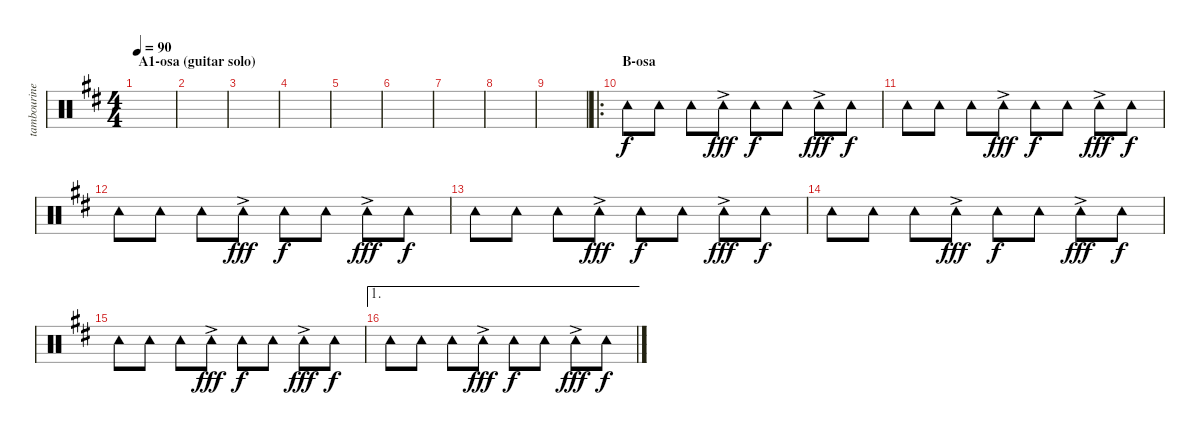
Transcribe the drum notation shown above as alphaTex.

\track ("tambourine" "tambourine") {instrument percussion}
\staff {score}
\articulation defaults
\ts (4 4)
\section ("" "A1-osa (guitar solo)")
\tempo 90
\clef neutral
\ks d
|
|
|
|
|
|
|
|
|
\ro
\section ("" "B-osa")
"Tambourine (hit)".8 "Tambourine (hit)".8 "Tambourine (hit)".8 "Tambourine (hit)"{ac}.8{dy fff} "Tambourine (hit)".8{dy f} "Tambourine (hit)".8 "Tambourine (hit)"{ac}.8{dy fff} "Tambourine (hit)".8{dy f} |
"Tambourine (hit)".8 "Tambourine (hit)".8 "Tambourine (hit)".8 "Tambourine (hit)"{ac}.8{dy fff} "Tambourine (hit)".8{dy f} "Tambourine (hit)".8 "Tambourine (hit)"{ac}.8{dy fff} "Tambourine (hit)".8{dy f} |
"Tambourine (hit)".8 "Tambourine (hit)".8 "Tambourine (hit)".8 "Tambourine (hit)"{ac}.8{dy fff} "Tambourine (hit)".8{dy f} "Tambourine (hit)".8 "Tambourine (hit)"{ac}.8{dy fff} "Tambourine (hit)".8{dy f} |
"Tambourine (hit)".8 "Tambourine (hit)".8 "Tambourine (hit)".8 "Tambourine (hit)"{ac}.8{dy fff} "Tambourine (hit)".8{dy f} "Tambourine (hit)".8 "Tambourine (hit)"{ac}.8{dy fff} "Tambourine (hit)".8{dy f} |
"Tambourine (hit)".8 "Tambourine (hit)".8 "Tambourine (hit)".8 "Tambourine (hit)"{ac}.8{dy fff} "Tambourine (hit)".8{dy f} "Tambourine (hit)".8 "Tambourine (hit)"{ac}.8{dy fff} "Tambourine (hit)".8{dy f} |
"Tambourine (hit)".8 "Tambourine (hit)".8 "Tambourine (hit)".8 "Tambourine (hit)"{ac}.8{dy fff} "Tambourine (hit)".8{dy f} "Tambourine (hit)".8 "Tambourine (hit)"{ac}.8{dy fff} "Tambourine (hit)".8{dy f} |
\ae 1 "Tambourine (hit)".8 "Tambourine (hit)".8 "Tambourine (hit)".8 "Tambourine (hit)"{ac}.8{dy fff} "Tambourine (hit)".8{dy f} "Tambourine (hit)".8 "Tambourine (hit)"{ac}.8{dy fff} "Tambourine (hit)".8{dy f}
